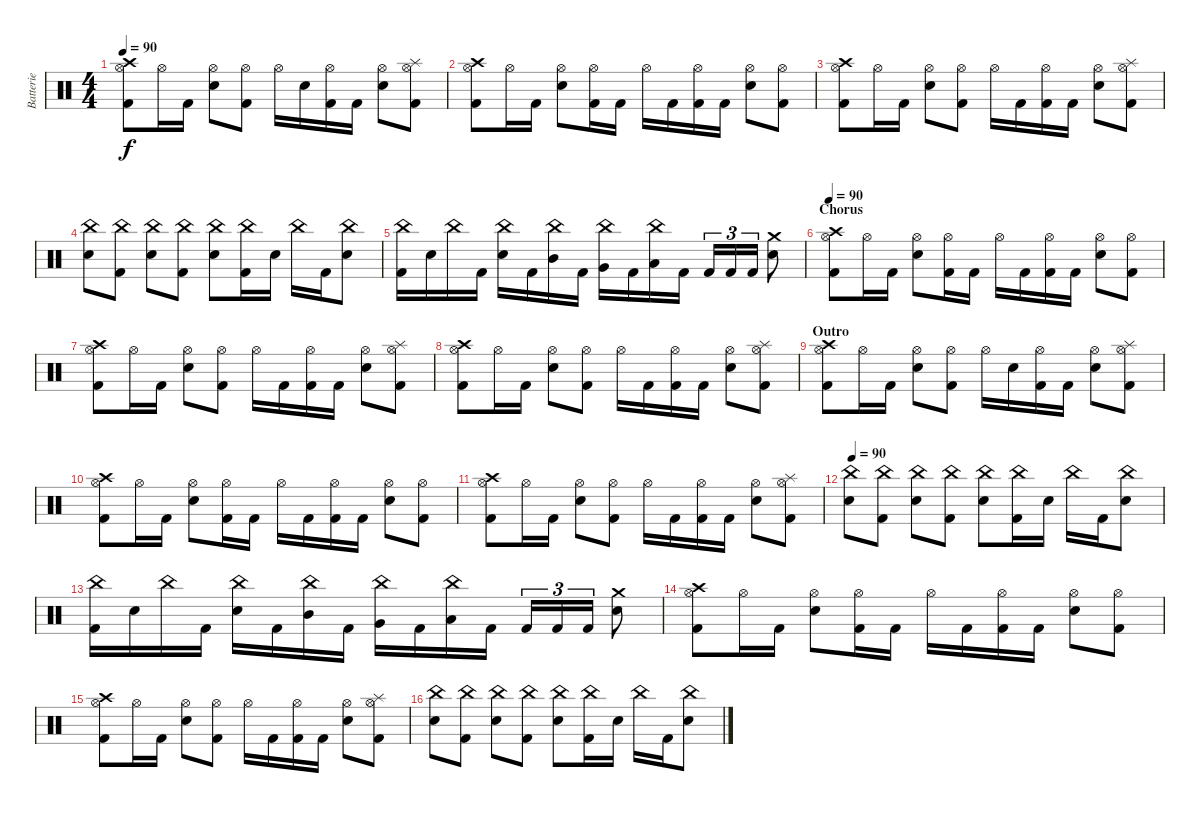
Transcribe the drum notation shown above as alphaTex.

\track ("Batterie" "Batterie") {instrument percussion}
\staff {score}
\articulation defaults
\ts (4 4)
\tempo 90
\clef neutral
\ks c
("Hi-Hat (open)" "Crash high (hit)" "Kick (hit) 2").8{dy f} "Hi-Hat (open)".16 "Kick (hit) 2".16 ("Hi-Hat (open)" "Electric Snare (hit)").8 ("Hi-Hat (open)" "Kick (hit) 2").8 "Hi-Hat (open)".16 "Electric Snare (hit)".16 ("Hi-Hat (open)" "Kick (hit) 2").16 "Kick (hit) 2".16 ("Hi-Hat (open)" "Electric Snare (hit)").8 ("Hi-Hat (open)" "Splash (hit)" "Kick (hit) 2").8 |
("Hi-Hat (open)" "Crash high (hit)" "Kick (hit) 2").8 "Hi-Hat (open)".16 "Kick (hit) 2".16 ("Hi-Hat (open)" "Electric Snare (hit)").8 ("Hi-Hat (open)" "Kick (hit) 2").16 "Kick (hit) 2".16 "Hi-Hat (open)".16 "Kick (hit) 2".16 ("Hi-Hat (open)" "Kick (hit) 2").16 "Kick (hit) 2".16 ("Hi-Hat (open)" "Electric Snare (hit)").8 ("Hi-Hat (open)" "Kick (hit) 2").8 |
("Hi-Hat (open)" "Crash high (hit)" "Kick (hit) 2").8 "Hi-Hat (open)".16 "Kick (hit) 2".16 ("Hi-Hat (open)" "Electric Snare (hit)").8 ("Hi-Hat (open)" "Kick (hit) 2").8 "Hi-Hat (open)".16 "Kick (hit) 2".16 ("Hi-Hat (open)" "Kick (hit) 2").16 "Kick (hit) 2".16 ("Hi-Hat (open)" "Electric Snare (hit)").8 ("Hi-Hat (open)" "Splash (hit)" "Kick (hit) 2").8 |
("China (hit)" "Electric Snare (hit)").8 ("China (hit)" "Kick (hit) 2").8 ("China (hit)" "Electric Snare (hit)").8 ("China (hit)" "Kick (hit) 2").8 ("China (hit)" "Electric Snare (hit)").8 ("China (hit)" "Kick (hit) 2").16 "Electric Snare (hit)".16 "China (hit)".16 "Kick (hit) 2".16 ("China (hit)" "Electric Snare (hit)").8 |
("China (hit)" "Kick (hit) 2").16 "Electric Snare (hit)".16 "China (hit)".16 "Kick (hit) 2".16 ("China (hit)" "Electric Snare (hit)").16 "Kick (hit) 2".16 ("China (hit)" "Mid Tom (hit)").16 "Kick (hit) 2".16 ("China (hit)" "Very Low Tom (hit)").16 "Kick (hit) 2".16 ("China (hit)" "Low Floor Tom (hit)").16 "Kick (hit) 2".16 "Kick (hit) 2".16{tu (3 2)} "Kick (hit) 2".16{tu (3 2)} "Kick (hit) 2".16{tu (3 2)} ("Crash medium (hit)" "Snare (hit) 2").8 |
\section ("" "Chorus")
\tempo 90
("Hi-Hat (open)" "Crash high (hit)" "Kick (hit) 2").8 "Hi-Hat (open)".16 "Kick (hit) 2".16 ("Hi-Hat (open)" "Electric Snare (hit)").8 ("Hi-Hat (open)" "Kick (hit) 2").16 "Kick (hit) 2".16 "Hi-Hat (open)".16 "Kick (hit) 2".16 ("Hi-Hat (open)" "Kick (hit) 2").16 "Kick (hit) 2".16 ("Hi-Hat (open)" "Electric Snare (hit)").8 ("Hi-Hat (open)" "Kick (hit) 2").8 |
("Hi-Hat (open)" "Crash high (hit)" "Kick (hit) 2").8 "Hi-Hat (open)".16 "Kick (hit) 2".16 ("Hi-Hat (open)" "Electric Snare (hit)").8 ("Hi-Hat (open)" "Kick (hit) 2").8 "Hi-Hat (open)".16 "Kick (hit) 2".16 ("Hi-Hat (open)" "Kick (hit) 2").16 "Kick (hit) 2".16 ("Hi-Hat (open)" "Electric Snare (hit)").8 ("Hi-Hat (open)" "Splash (hit)" "Kick (hit) 2").8 |
("Hi-Hat (open)" "Crash high (hit)" "Kick (hit) 2").8 "Hi-Hat (open)".16 "Kick (hit) 2".16 ("Hi-Hat (open)" "Electric Snare (hit)").8 ("Hi-Hat (open)" "Kick (hit) 2").8 "Hi-Hat (open)".16 "Kick (hit) 2".16 ("Hi-Hat (open)" "Kick (hit) 2").16 "Kick (hit) 2".16 ("Hi-Hat (open)" "Electric Snare (hit)").8 ("Hi-Hat (open)" "Splash (hit)" "Kick (hit) 2").8 |
\section ("" "Outro")
("Hi-Hat (open)" "Crash high (hit)" "Kick (hit) 2").8 "Hi-Hat (open)".16 "Kick (hit) 2".16 ("Hi-Hat (open)" "Electric Snare (hit)").8 ("Hi-Hat (open)" "Kick (hit) 2").8 "Hi-Hat (open)".16 "Electric Snare (hit)".16 ("Hi-Hat (open)" "Kick (hit) 2").16 "Kick (hit) 2".16 ("Hi-Hat (open)" "Electric Snare (hit)").8 ("Hi-Hat (open)" "Splash (hit)" "Kick (hit) 2").8 |
("Hi-Hat (open)" "Crash high (hit)" "Kick (hit) 2").8 "Hi-Hat (open)".16 "Kick (hit) 2".16 ("Hi-Hat (open)" "Electric Snare (hit)").8 ("Hi-Hat (open)" "Kick (hit) 2").16 "Kick (hit) 2".16 "Hi-Hat (open)".16 "Kick (hit) 2".16 ("Hi-Hat (open)" "Kick (hit) 2").16 "Kick (hit) 2".16 ("Hi-Hat (open)" "Electric Snare (hit)").8 ("Hi-Hat (open)" "Kick (hit) 2").8 |
("Hi-Hat (open)" "Crash high (hit)" "Kick (hit) 2").8 "Hi-Hat (open)".16 "Kick (hit) 2".16 ("Hi-Hat (open)" "Electric Snare (hit)").8 ("Hi-Hat (open)" "Kick (hit) 2").8 "Hi-Hat (open)".16 "Kick (hit) 2".16 ("Hi-Hat (open)" "Kick (hit) 2").16 "Kick (hit) 2".16 ("Hi-Hat (open)" "Electric Snare (hit)").8 ("Hi-Hat (open)" "Splash (hit)" "Kick (hit) 2").8 |
\tempo 90
("China (hit)" "Electric Snare (hit)").8 ("China (hit)" "Kick (hit) 2").8 ("China (hit)" "Electric Snare (hit)").8 ("China (hit)" "Kick (hit) 2").8 ("China (hit)" "Electric Snare (hit)").8 ("China (hit)" "Kick (hit) 2").16 "Electric Snare (hit)".16 "China (hit)".16 "Kick (hit) 2".16 ("China (hit)" "Electric Snare (hit)").8 |
("China (hit)" "Kick (hit) 2").16 "Electric Snare (hit)".16 "China (hit)".16 "Kick (hit) 2".16 ("China (hit)" "Electric Snare (hit)").16 "Kick (hit) 2".16 ("China (hit)" "Mid Tom (hit)").16 "Kick (hit) 2".16 ("China (hit)" "Very Low Tom (hit)").16 "Kick (hit) 2".16 ("China (hit)" "Low Floor Tom (hit)").16 "Kick (hit) 2".16 "Kick (hit) 2".16{tu (3 2)} "Kick (hit) 2".16{tu (3 2)} "Kick (hit) 2".16{tu (3 2)} ("Crash medium (hit)" "Snare (hit) 2").8 |
("Hi-Hat (open)" "Crash high (hit)" "Kick (hit) 2").8 "Hi-Hat (open)".16 "Kick (hit) 2".16 ("Hi-Hat (open)" "Electric Snare (hit)").8 ("Hi-Hat (open)" "Kick (hit) 2").16 "Kick (hit) 2".16 "Hi-Hat (open)".16 "Kick (hit) 2".16 ("Hi-Hat (open)" "Kick (hit) 2").16 "Kick (hit) 2".16 ("Hi-Hat (open)" "Electric Snare (hit)").8 ("Hi-Hat (open)" "Kick (hit) 2").8 |
("Hi-Hat (open)" "Crash high (hit)" "Kick (hit) 2").8 "Hi-Hat (open)".16 "Kick (hit) 2".16 ("Hi-Hat (open)" "Electric Snare (hit)").8 ("Hi-Hat (open)" "Kick (hit) 2").8 "Hi-Hat (open)".16 "Kick (hit) 2".16 ("Hi-Hat (open)" "Kick (hit) 2").16 "Kick (hit) 2".16 ("Hi-Hat (open)" "Electric Snare (hit)").8 ("Hi-Hat (open)" "Splash (hit)" "Kick (hit) 2").8 |
("China (hit)" "Electric Snare (hit)").8 ("China (hit)" "Kick (hit) 2").8 ("China (hit)" "Electric Snare (hit)").8 ("China (hit)" "Kick (hit) 2").8 ("China (hit)" "Electric Snare (hit)").8 ("China (hit)" "Kick (hit) 2").16 "Electric Snare (hit)".16 "China (hit)".16 "Kick (hit) 2".16 ("China (hit)" "Electric Snare (hit)").8
